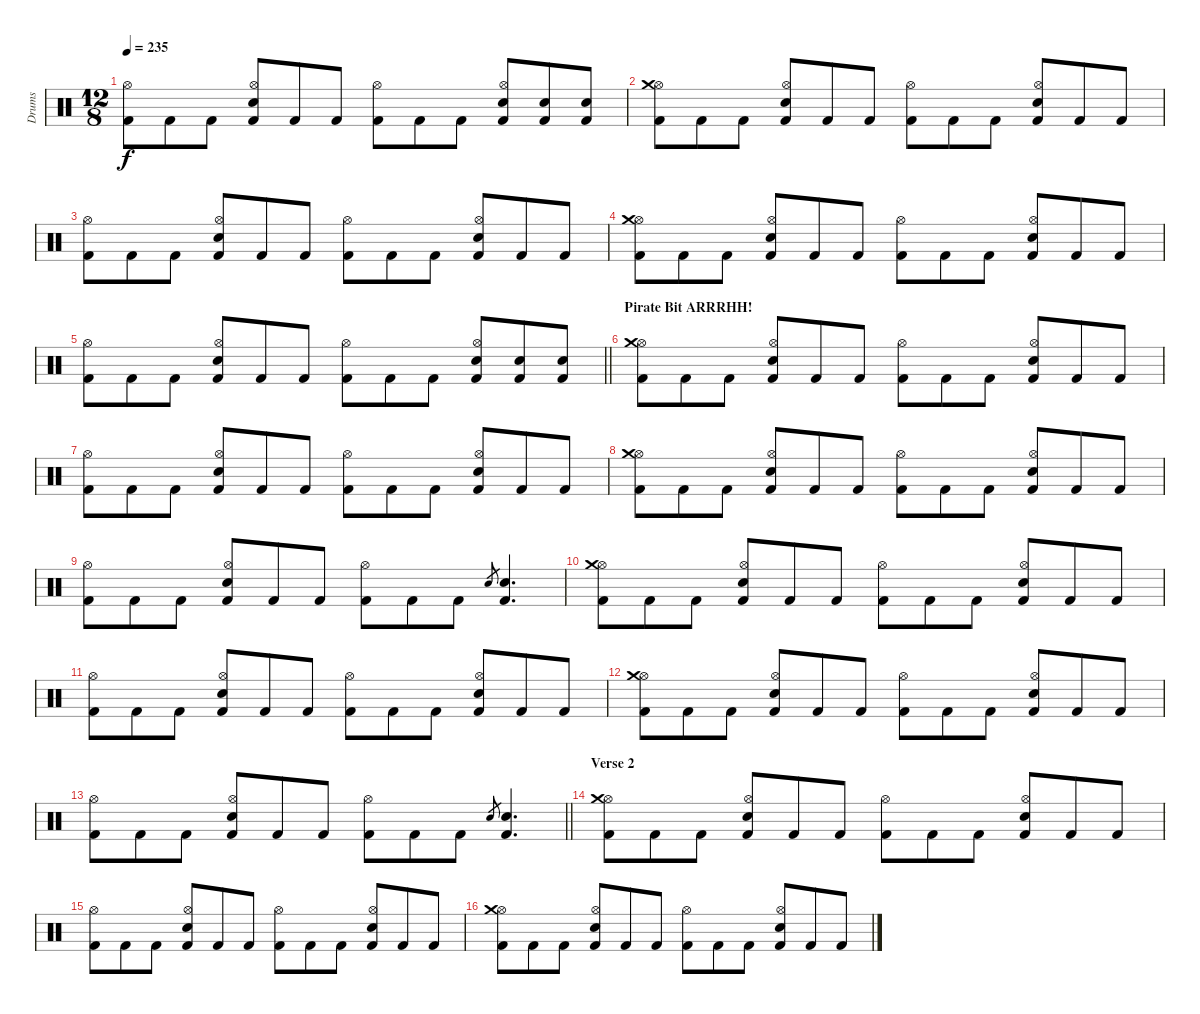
\track ("Drums" "Drums") {instrument percussion}
\staff {score}
\articulation defaults
\ts (12 8)
\tempo 235
\clef neutral
\ks c
("Kick (hit) 2" "Hi-Hat (open)").8{dy f} "Kick (hit) 2".8 "Kick (hit) 2".8 ("Hi-Hat (open)" "Kick (hit) 2" "Snare (hit) 2").8 "Kick (hit) 2".8 "Kick (hit) 2".8 ("Kick (hit) 2" "Hi-Hat (open)").8 "Kick (hit) 2".8 "Kick (hit) 2".8 ("Kick (hit) 2" "Hi-Hat (open)" "Snare (hit) 2").8 ("Kick (hit) 2" "Snare (hit) 2").8 ("Kick (hit) 2" "Snare (hit) 2").8 |
("Kick (hit) 2" "Hi-Hat (open)" "Crash medium (hit)").8 "Kick (hit) 2".8 "Kick (hit) 2".8 ("Snare (hit) 2" "Hi-Hat (open)" "Kick (hit) 2").8 "Kick (hit) 2".8 "Kick (hit) 2".8 ("Hi-Hat (open)" "Kick (hit) 2").8 "Kick (hit) 2".8 "Kick (hit) 2".8 ("Kick (hit) 2" "Snare (hit) 2" "Hi-Hat (open)").8 "Kick (hit) 2".8 "Kick (hit) 2".8 |
("Hi-Hat (open)" "Kick (hit) 2").8 "Kick (hit) 2".8 "Kick (hit) 2".8 ("Snare (hit) 2" "Kick (hit) 2" "Hi-Hat (open)").8 "Kick (hit) 2".8 "Kick (hit) 2".8 ("Hi-Hat (open)" "Kick (hit) 2").8 "Kick (hit) 2".8 "Kick (hit) 2".8 ("Hi-Hat (open)" "Kick (hit) 2" "Snare (hit) 2").8 "Kick (hit) 2".8 "Kick (hit) 2".8 |
("Hi-Hat (open)" "Kick (hit) 2" "Crash medium (hit)").8 "Kick (hit) 2".8 "Kick (hit) 2".8 ("Kick (hit) 2" "Snare (hit) 2" "Hi-Hat (open)").8 "Kick (hit) 2".8 "Kick (hit) 2".8 ("Kick (hit) 2" "Hi-Hat (open)").8 "Kick (hit) 2".8 "Kick (hit) 2".8 ("Snare (hit) 2" "Kick (hit) 2" "Hi-Hat (open)").8 "Kick (hit) 2".8 "Kick (hit) 2".8 |
\barLineRight lightlight
("Kick (hit) 2" "Hi-Hat (open)").8 "Kick (hit) 2".8 "Kick (hit) 2".8 ("Hi-Hat (open)" "Kick (hit) 2" "Snare (hit) 2").8 "Kick (hit) 2".8 "Kick (hit) 2".8 ("Kick (hit) 2" "Hi-Hat (open)").8 "Kick (hit) 2".8 "Kick (hit) 2".8 ("Kick (hit) 2" "Hi-Hat (open)" "Snare (hit) 2").8 ("Kick (hit) 2" "Snare (hit) 2").8 ("Kick (hit) 2" "Snare (hit) 2").8 |
\section ("" "Pirate Bit ARRRHH!")
("Kick (hit) 2" "Hi-Hat (open)" "Crash medium (hit)").8 "Kick (hit) 2".8 "Kick (hit) 2".8 ("Snare (hit) 2" "Hi-Hat (open)" "Kick (hit) 2").8 "Kick (hit) 2".8 "Kick (hit) 2".8 ("Hi-Hat (open)" "Kick (hit) 2").8 "Kick (hit) 2".8 "Kick (hit) 2".8 ("Kick (hit) 2" "Snare (hit) 2" "Hi-Hat (open)").8 "Kick (hit) 2".8 "Kick (hit) 2".8 |
("Hi-Hat (open)" "Kick (hit) 2").8 "Kick (hit) 2".8 "Kick (hit) 2".8 ("Snare (hit) 2" "Kick (hit) 2" "Hi-Hat (open)").8 "Kick (hit) 2".8 "Kick (hit) 2".8 ("Hi-Hat (open)" "Kick (hit) 2").8 "Kick (hit) 2".8 "Kick (hit) 2".8 ("Hi-Hat (open)" "Kick (hit) 2" "Snare (hit) 2").8 "Kick (hit) 2".8 "Kick (hit) 2".8 |
("Hi-Hat (open)" "Kick (hit) 2" "Crash medium (hit)").8 "Kick (hit) 2".8 "Kick (hit) 2".8 ("Kick (hit) 2" "Snare (hit) 2" "Hi-Hat (open)").8 "Kick (hit) 2".8 "Kick (hit) 2".8 ("Kick (hit) 2" "Hi-Hat (open)").8 "Kick (hit) 2".8 "Kick (hit) 2".8 ("Snare (hit) 2" "Kick (hit) 2" "Hi-Hat (open)").8 "Kick (hit) 2".8 "Kick (hit) 2".8 |
("Kick (hit) 2" "Hi-Hat (open)").8 "Kick (hit) 2".8 "Kick (hit) 2".8 ("Hi-Hat (open)" "Kick (hit) 2" "Snare (hit) 2").8 "Kick (hit) 2".8 "Kick (hit) 2".8 ("Kick (hit) 2" "Hi-Hat (open)").8 "Kick (hit) 2".8 "Kick (hit) 2".8 "Snare (hit) 2".8{gr} ("Kick (hit) 2" "Snare (hit) 2").4{d} |
("Kick (hit) 2" "Hi-Hat (open)" "Crash medium (hit)").8 "Kick (hit) 2".8 "Kick (hit) 2".8 ("Snare (hit) 2" "Hi-Hat (open)" "Kick (hit) 2").8 "Kick (hit) 2".8 "Kick (hit) 2".8 ("Hi-Hat (open)" "Kick (hit) 2").8 "Kick (hit) 2".8 "Kick (hit) 2".8 ("Kick (hit) 2" "Snare (hit) 2" "Hi-Hat (open)").8 "Kick (hit) 2".8 "Kick (hit) 2".8 |
("Hi-Hat (open)" "Kick (hit) 2").8 "Kick (hit) 2".8 "Kick (hit) 2".8 ("Snare (hit) 2" "Kick (hit) 2" "Hi-Hat (open)").8 "Kick (hit) 2".8 "Kick (hit) 2".8 ("Hi-Hat (open)" "Kick (hit) 2").8 "Kick (hit) 2".8 "Kick (hit) 2".8 ("Hi-Hat (open)" "Kick (hit) 2" "Snare (hit) 2").8 "Kick (hit) 2".8 "Kick (hit) 2".8 |
("Hi-Hat (open)" "Kick (hit) 2" "Crash medium (hit)").8 "Kick (hit) 2".8 "Kick (hit) 2".8 ("Kick (hit) 2" "Snare (hit) 2" "Hi-Hat (open)").8 "Kick (hit) 2".8 "Kick (hit) 2".8 ("Kick (hit) 2" "Hi-Hat (open)").8 "Kick (hit) 2".8 "Kick (hit) 2".8 ("Snare (hit) 2" "Kick (hit) 2" "Hi-Hat (open)").8 "Kick (hit) 2".8 "Kick (hit) 2".8 |
\barLineRight lightlight
("Kick (hit) 2" "Hi-Hat (open)").8 "Kick (hit) 2".8 "Kick (hit) 2".8 ("Hi-Hat (open)" "Kick (hit) 2" "Snare (hit) 2").8 "Kick (hit) 2".8 "Kick (hit) 2".8 ("Kick (hit) 2" "Hi-Hat (open)").8 "Kick (hit) 2".8 "Kick (hit) 2".8 "Snare (hit) 2".8{gr} ("Kick (hit) 2" "Snare (hit) 2").4{d} |
\section ("" "Verse 2")
("Kick (hit) 2" "Hi-Hat (open)" "Crash medium (hit)").8 "Kick (hit) 2".8 "Kick (hit) 2".8 ("Snare (hit) 2" "Hi-Hat (open)" "Kick (hit) 2").8 "Kick (hit) 2".8 "Kick (hit) 2".8 ("Hi-Hat (open)" "Kick (hit) 2").8 "Kick (hit) 2".8 "Kick (hit) 2".8 ("Kick (hit) 2" "Snare (hit) 2" "Hi-Hat (open)").8 "Kick (hit) 2".8 "Kick (hit) 2".8 |
("Hi-Hat (open)" "Kick (hit) 2").8 "Kick (hit) 2".8 "Kick (hit) 2".8 ("Snare (hit) 2" "Kick (hit) 2" "Hi-Hat (open)").8 "Kick (hit) 2".8 "Kick (hit) 2".8 ("Hi-Hat (open)" "Kick (hit) 2").8 "Kick (hit) 2".8 "Kick (hit) 2".8 ("Hi-Hat (open)" "Kick (hit) 2" "Snare (hit) 2").8 "Kick (hit) 2".8 "Kick (hit) 2".8 |
("Hi-Hat (open)" "Kick (hit) 2" "Crash medium (hit)").8 "Kick (hit) 2".8 "Kick (hit) 2".8 ("Kick (hit) 2" "Snare (hit) 2" "Hi-Hat (open)").8 "Kick (hit) 2".8 "Kick (hit) 2".8 ("Kick (hit) 2" "Hi-Hat (open)").8 "Kick (hit) 2".8 "Kick (hit) 2".8 ("Snare (hit) 2" "Kick (hit) 2" "Hi-Hat (open)").8 "Kick (hit) 2".8 "Kick (hit) 2".8
